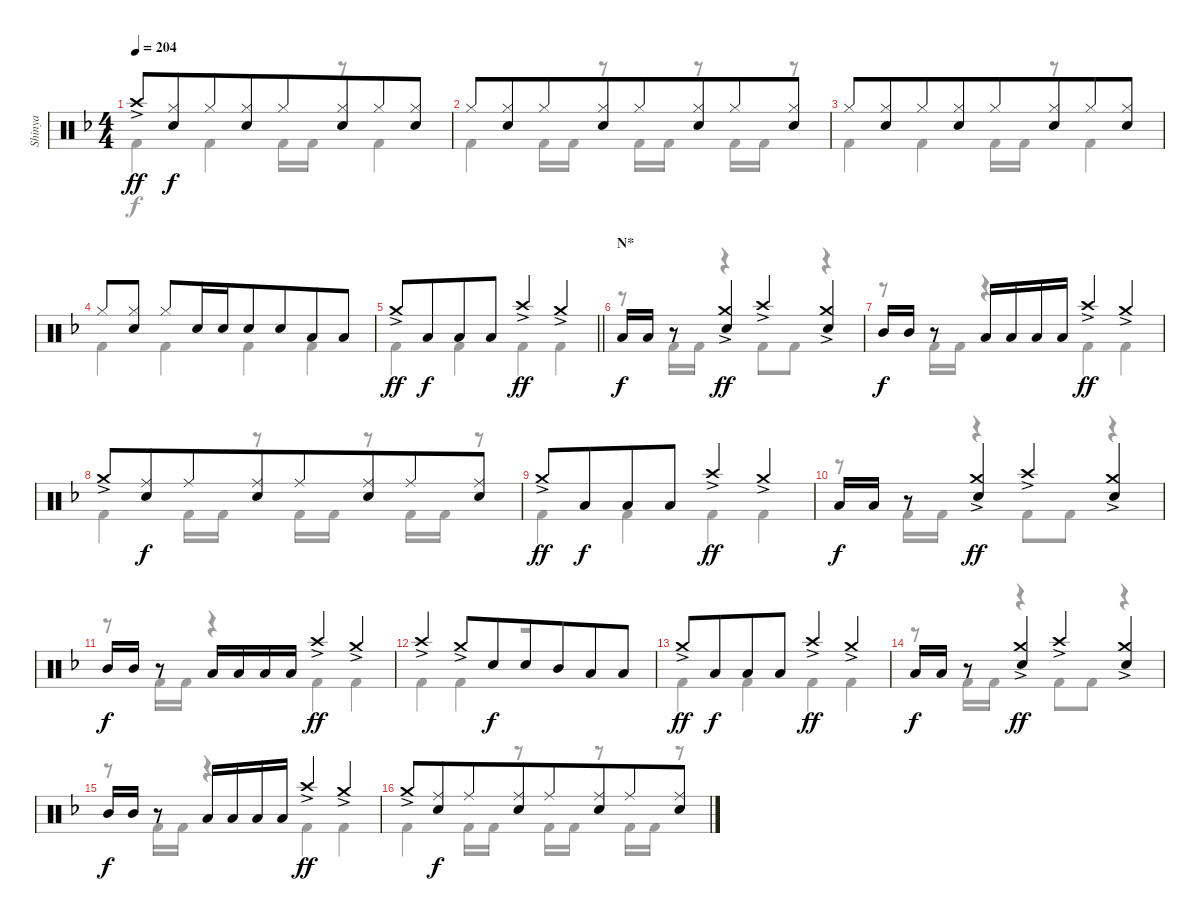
\track ("Shinya" "Shinya") {mute instrument percussion}
\staff {score}
\articulation defaults
\voice
\ts (4 4)
\tempo 204
\clef neutral
\ks f "Crash high (hit)"{ac}.8{dy ff}
("Hi-Hat (closed)" "Snare (hit) 2").8{dy f beam merge} "Hi-Hat (closed)".8{beam merge} ("Hi-Hat (closed)" "Snare (hit) 2").8{beam merge} "Hi-Hat (closed)".8 ("Hi-Hat (closed)" "Snare (hit) 2").8{beam merge} "Hi-Hat (closed)".8 ("Hi-Hat (closed)" "Snare (hit) 2").8 |
"Hi-Hat (closed)".8 ("Hi-Hat (closed)" "Snare (hit) 2").8{beam merge} "Hi-Hat (closed)".8 ("Hi-Hat (closed)" "Snare (hit) 2").8{beam merge} "Hi-Hat (closed)".8 ("Hi-Hat (closed)" "Snare (hit) 2").8{beam merge} "Hi-Hat (closed)".8 ("Hi-Hat (closed)" "Snare (hit) 2").8 |
"Hi-Hat (closed)".8 ("Hi-Hat (closed)" "Snare (hit) 2").8{beam merge} "Hi-Hat (closed)".8 ("Hi-Hat (closed)" "Snare (hit) 2").8{beam merge} "Hi-Hat (closed)".8 ("Hi-Hat (closed)" "Snare (hit) 2").8{beam merge} "Hi-Hat (closed)".8 ("Hi-Hat (closed)" "Snare (hit) 2").8 |
"Hi-Hat (closed)".8 ("Hi-Hat (closed)" "Snare (hit) 2").8{beam split} "Hi-Hat (closed)".8 "Snare (hit) 2".16 "Snare (hit) 2".16{beam merge} "Snare (hit) 2".8{beam merge} "Snare (hit) 2".8{beam merge} "Low Tom (hit)".8{beam merge} "Low Tom (hit)".8 |
\barLineRight lightlight "Crash medium (hit)"{ac}.8{dy ff} "Low Tom (hit)".8{dy f beam merge} "Low Tom (hit)".8{beam merge} "Low Tom (hit)".8{beam merge} "Crash high (hit)"{ac}.4{dy ff} "Crash medium (hit)"{ac}.4
|
\section ("" "N*")
"Low Tom (hit)".16{dy f} "Low Tom (hit)".16 r.8 ("Crash medium (hit)"{ac} "Snare (hit) 2").4{dy ff beam merge} "Crash high (hit)"{ac}.4 ("Crash medium (hit)"{ac} "Snare (hit) 2").4 |
"Mid Tom (hit)".16{dy f} "Mid Tom (hit)".16 r.8 "Low Tom (hit)".16{beam merge} "Low Tom (hit)".16 "Low Tom (hit)".16{beam merge} "Low Tom (hit)".16{beam merge} "Crash high (hit)"{ac}.4{dy ff} "Crash medium (hit)"{ac}.4 |
"Crash medium (hit)"{ac}.8 ("Ride (middle)" "Snare (hit) 2").8{dy f beam merge} "Ride (middle)".8{beam merge} ("Ride (middle)" "Snare (hit) 2").8{beam merge} "Ride (middle)".8 ("Ride (middle)" "Snare (hit) 2").8{beam merge} "Ride (middle)".8 ("Ride (middle)" "Snare (hit) 2").8 |
"Crash medium (hit)"{ac}.8{dy ff} "Low Tom (hit)".8{dy f beam merge} "Low Tom (hit)".8{beam merge} "Low Tom (hit)".8{beam merge} "Crash high (hit)"{ac}.4{dy ff} "Crash medium (hit)"{ac}.4 |
"Low Tom (hit)".16{dy f} "Low Tom (hit)".16 r.8 ("Crash medium (hit)"{ac} "Snare (hit) 2").4{dy ff beam merge} "Crash high (hit)"{ac}.4{beam merge} ("Crash medium (hit)"{ac} "Snare (hit) 2").4 |
"Mid Tom (hit)".16{dy f} "Mid Tom (hit)".16 r.8 "Low Tom (hit)".16{beam merge} "Low Tom (hit)".16{beam merge} "Low Tom (hit)".16{beam merge} "Low Tom (hit)".16 "Crash high (hit)"{ac}.4{dy ff beam merge} "Crash medium (hit)"{ac}.4 |
"Crash high (hit)"{ac}.4 "Crash medium (hit)"{ac}.8{beam merge} "Snare (hit) 2".8{dy f beam merge} "Snare (hit) 2".8 "Mid Tom (hit)".8{beam merge} "Low Tom (hit)".8 "Low Tom (hit)".8 |
"Crash medium (hit)"{ac}.8{dy ff} "Low Tom (hit)".8{dy f beam merge} "Low Tom (hit)".8{beam merge} "Low Tom (hit)".8{beam merge} "Crash high (hit)"{ac}.4{dy ff} "Crash medium (hit)"{ac}.4 |
"Low Tom (hit)".16{dy f} "Low Tom (hit)".16 r.8 ("Crash medium (hit)"{ac} "Snare (hit) 2").4{dy ff beam merge} "Crash high (hit)"{ac}.4 ("Crash medium (hit)"{ac} "Snare (hit) 2").4 |
"Mid Tom (hit)".16{dy f} "Mid Tom (hit)".16 r.8 "Low Tom (hit)".16{beam merge} "Low Tom (hit)".16 "Low Tom (hit)".16{beam merge} "Low Tom (hit)".16{beam merge} "Crash high (hit)"{ac}.4{dy ff} "Crash medium (hit)"{ac}.4 |
"Crash medium (hit)"{ac}.8 ("Ride (middle)" "Snare (hit) 2").8{dy f beam merge} "Ride (middle)".8{beam merge} ("Ride (middle)" "Snare (hit) 2").8{beam merge} "Ride (middle)".8 ("Ride (middle)" "Snare (hit) 2").8{beam merge} "Ride (middle)".8 ("Ride (middle)" "Snare (hit) 2").8
\voice
\clef neutral
\ottava regular
\simile none
\ks f "Kick (hit) 2".4{dy f} "Kick (hit) 2".4 "Kick (hit) 2".16 "Kick (hit) 2".16
r.8 "Kick (hit) 2".4 |
"Kick (hit) 2".4 "Kick (hit) 2".16 "Kick (hit) 2".16 r.8 "Kick (hit) 2".16 "Kick (hit) 2".16 r.8 "Kick (hit) 2".16 "Kick (hit) 2".16 r.8 |
"Kick (hit) 2".4 "Kick (hit) 2".4 "Kick (hit) 2".16 "Kick (hit) 2".16 r.8 "Kick (hit) 2".4 |
"Kick (hit) 2".4 "Kick (hit) 2".4 "Kick (hit) 2".4 "Kick (hit) 2".4 |
\barLineRight lightlight "Kick (hit) 2".4 "Kick (hit) 2".4 "Kick (hit) 2".4 "Kick (hit) 2".4
|
r.8{beam merge} "Kick (hit) 2".16 "Kick (hit) 2".16 r.4 "Kick (hit) 2".8 "Kick (hit) 2".8 r.4 |
r.8{beam merge} "Kick (hit) 2".16 "Kick (hit) 2".16 r.4 "Kick (hit) 2".4 "Kick (hit) 2".4 |
"Kick (hit) 2".4 "Kick (hit) 2".16 "Kick (hit) 2".16 r.8 "Kick (hit) 2".16 "Kick (hit) 2".16 r.8 "Kick (hit) 2".16 "Kick (hit) 2".16 r.8 |
"Kick (hit) 2".4 "Kick (hit) 2".4 "Kick (hit) 2".4 "Kick (hit) 2".4 |
r.8 "Kick (hit) 2".16 "Kick (hit) 2".16 r.4 "Kick (hit) 2".8 "Kick (hit) 2".8 r.4 |
r.8{beam merge} "Kick (hit) 2".16 "Kick (hit) 2".16 r.4 "Kick (hit) 2".4 "Kick (hit) 2".4 |
"Kick (hit) 2".4 "Kick (hit) 2".4 r.2 |
"Kick (hit) 2".4 "Kick (hit) 2".4 "Kick (hit) 2".4 "Kick (hit) 2".4 |
r.8{beam merge} "Kick (hit) 2".16 "Kick (hit) 2".16 r.4 "Kick (hit) 2".8 "Kick (hit) 2".8 r.4 |
r.8{beam merge} "Kick (hit) 2".16 "Kick (hit) 2".16 r.4 "Kick (hit) 2".4 "Kick (hit) 2".4 |
"Kick (hit) 2".4 "Kick (hit) 2".16 "Kick (hit) 2".16 r.8 "Kick (hit) 2".16 "Kick (hit) 2".16 r.8 "Kick (hit) 2".16 "Kick (hit) 2".16 r.8
